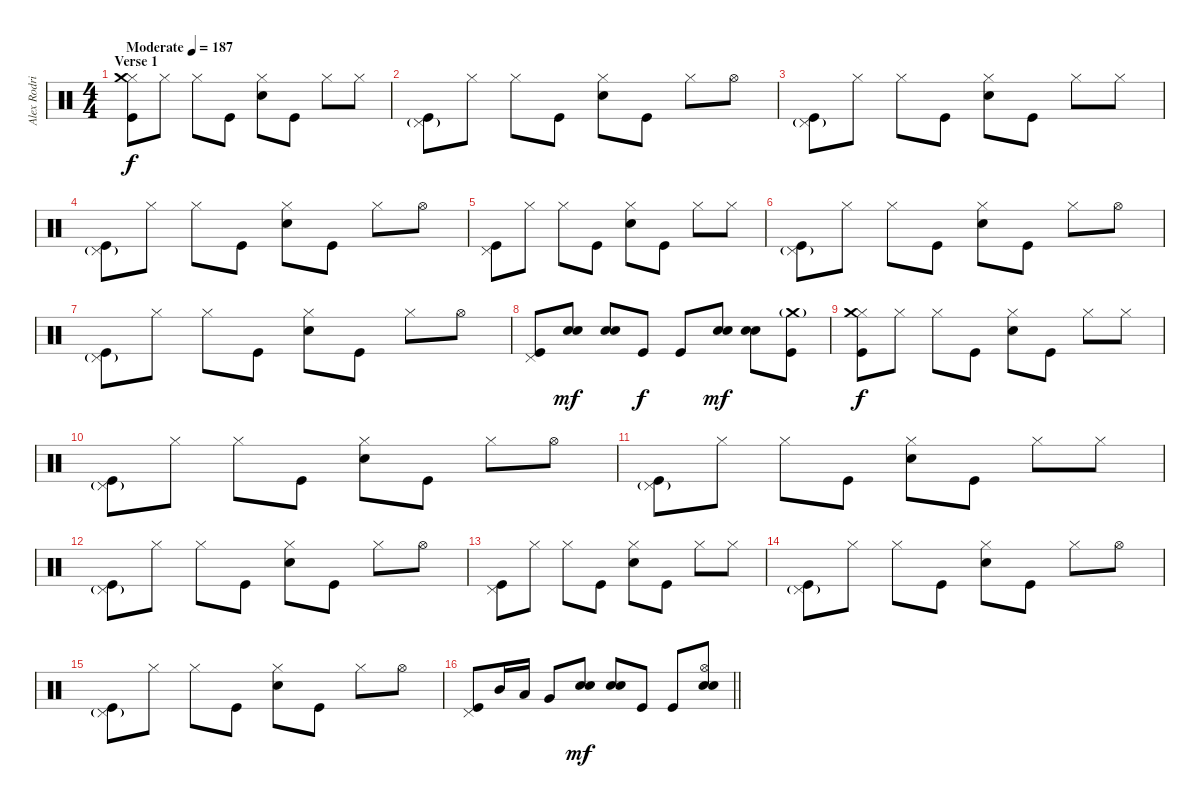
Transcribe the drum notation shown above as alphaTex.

\track ("Alex Rodriguez" "Alex Rodri") {instrument percussion}
\staff {score}
\articulation defaults
\ts (4 4)
\section ("" "Verse 1")
\tempo (187 "Moderate")
\clef neutral
\ks c
("Hi-Hat (closed)" "Crash medium (hit)" "Kick (hit)").8{dy f} "Hi-Hat (closed)".8 "Hi-Hat (closed)".8 "Kick (hit)".8 ("Hi-Hat (closed)" "Electric Snare (hit)").8 "Kick (hit)".8 "Hi-Hat (closed)".8 "Hi-Hat (closed)".8 |
("Pedal Hi-Hat (hit)"{g} "Kick (hit)").8 "Hi-Hat (closed)".8 "Hi-Hat (closed)".8 "Kick (hit)".8 ("Hi-Hat (closed)" "Electric Snare (hit)").8 "Kick (hit)".8 "Hi-Hat (closed)".8 "Hi-Hat (open)".8 |
("Pedal Hi-Hat (hit)"{g} "Kick (hit)").8 "Hi-Hat (closed)".8 "Hi-Hat (closed)".8 "Kick (hit)".8 ("Hi-Hat (closed)" "Electric Snare (hit)").8 "Kick (hit)".8 "Hi-Hat (closed)".8 "Hi-Hat (closed)".8 |
("Pedal Hi-Hat (hit)"{g} "Kick (hit)").8 "Hi-Hat (closed)".8 "Hi-Hat (closed)".8 "Kick (hit)".8 ("Hi-Hat (closed)" "Electric Snare (hit)").8 "Kick (hit)".8 "Hi-Hat (closed)".8 "Hi-Hat (open)".8 |
("Pedal Hi-Hat (hit)" "Kick (hit)").8 "Hi-Hat (closed)".8 "Hi-Hat (closed)".8 "Kick (hit)".8 ("Hi-Hat (closed)" "Electric Snare (hit)").8 "Kick (hit)".8 "Hi-Hat (closed)".8 "Hi-Hat (closed)".8 |
("Pedal Hi-Hat (hit)"{g} "Kick (hit)").8 "Hi-Hat (closed)".8 "Hi-Hat (closed)".8 "Kick (hit)".8 ("Hi-Hat (closed)" "Electric Snare (hit)").8 "Kick (hit)".8 "Hi-Hat (closed)".8 "Hi-Hat (open)".8 |
("Pedal Hi-Hat (hit)"{g} "Kick (hit)").8 "Hi-Hat (closed)".8 "Hi-Hat (closed)".8 "Kick (hit)".8 ("Hi-Hat (closed)" "Electric Snare (hit)").8 "Kick (hit)".8 "Hi-Hat (closed)".8 "Hi-Hat (open)".8 |
("Pedal Hi-Hat (hit)" "Kick (hit)").8 ("Snare (hit) 2" "Electric Snare (hit)").8{dy mf} ("Snare (hit) 2" "Electric Snare (hit)").8 "Kick (hit)".8{dy f} "Kick (hit)".8 ("Snare (hit) 2" "Electric Snare (hit)").8{dy mf} ("Snare (hit) 2" "Electric Snare (hit)").8 ("Crash medium (hit)"{g} "Kick (hit)").8 |
("Hi-Hat (closed)" "Crash medium (hit)" "Kick (hit)").8{dy f} "Hi-Hat (closed)".8 "Hi-Hat (closed)".8 "Kick (hit)".8 ("Hi-Hat (closed)" "Electric Snare (hit)").8 "Kick (hit)".8 "Hi-Hat (closed)".8 "Hi-Hat (closed)".8 |
("Pedal Hi-Hat (hit)"{g} "Kick (hit)").8 "Hi-Hat (closed)".8 "Hi-Hat (closed)".8 "Kick (hit)".8 ("Hi-Hat (closed)" "Electric Snare (hit)").8 "Kick (hit)".8 "Hi-Hat (closed)".8 "Hi-Hat (open)".8 |
("Pedal Hi-Hat (hit)"{g} "Kick (hit)").8 "Hi-Hat (closed)".8 "Hi-Hat (closed)".8 "Kick (hit)".8 ("Hi-Hat (closed)" "Electric Snare (hit)").8 "Kick (hit)".8 "Hi-Hat (closed)".8 "Hi-Hat (closed)".8 |
("Pedal Hi-Hat (hit)"{g} "Kick (hit)").8 "Hi-Hat (closed)".8 "Hi-Hat (closed)".8 "Kick (hit)".8 ("Hi-Hat (closed)" "Electric Snare (hit)").8 "Kick (hit)".8 "Hi-Hat (closed)".8 "Hi-Hat (open)".8 |
("Pedal Hi-Hat (hit)" "Kick (hit)").8 "Hi-Hat (closed)".8 "Hi-Hat (closed)".8 "Kick (hit)".8 ("Hi-Hat (closed)" "Electric Snare (hit)").8 "Kick (hit)".8 "Hi-Hat (closed)".8 "Hi-Hat (closed)".8 |
("Pedal Hi-Hat (hit)"{g} "Kick (hit)").8 "Hi-Hat (closed)".8 "Hi-Hat (closed)".8 "Kick (hit)".8 ("Hi-Hat (closed)" "Electric Snare (hit)").8 "Kick (hit)".8 "Hi-Hat (closed)".8 "Hi-Hat (open)".8 |
("Pedal Hi-Hat (hit)"{g} "Kick (hit)").8 "Hi-Hat (closed)".8 "Hi-Hat (closed)".8 "Kick (hit)".8 ("Hi-Hat (closed)" "Electric Snare (hit)").8 "Kick (hit)".8 "Hi-Hat (closed)".8 "Hi-Hat (open)".8 |
\barLineRight lightlight
("Pedal Hi-Hat (hit)" "Kick (hit)").8 "Mid Tom (hit)".16 "Low Tom (hit)".16 "Very Low Tom (hit)".8 ("Snare (hit) 2" "Electric Snare (hit)").8{dy mf} ("Snare (hit) 2" "Electric Snare (hit)").8 "Kick (hit)".8 "Kick (hit)".8 ("Hi-Hat (open)" "Snare (hit) 2" "Electric Snare (hit)").8
